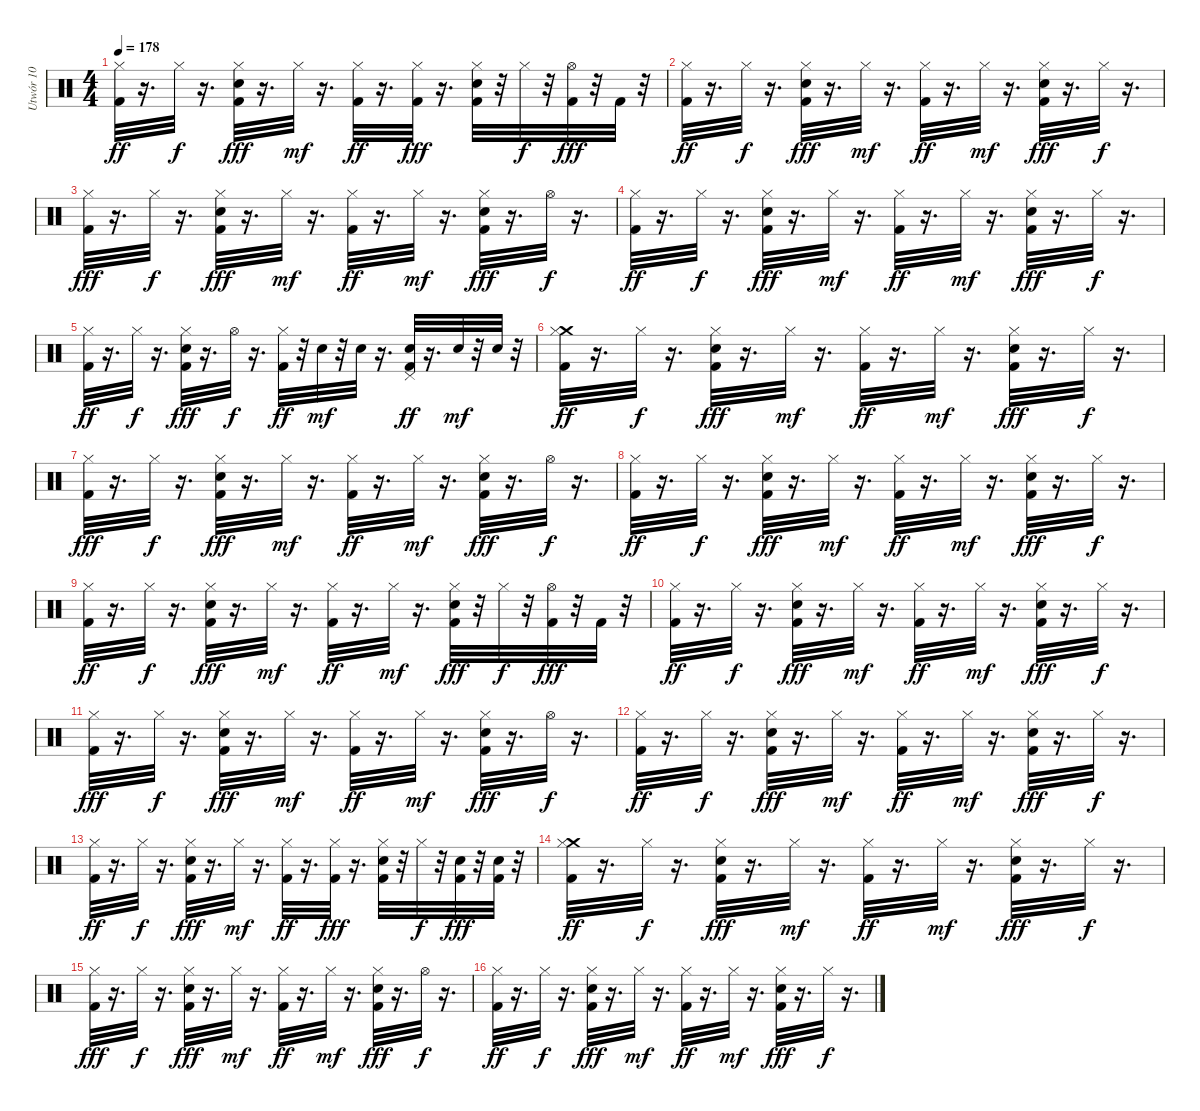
\track ("Utwór 10" "Utwór 10") {instrument percussion}
\staff {score}
\articulation defaults
\ts (4 4)
\tempo 178
\clef neutral
\ks c
("Kick (hit) 2" "Hi-Hat (closed)").32{dy ff} r.16{d} "Hi-Hat (closed)".32{dy f} r.16{d} ("Kick (hit) 2" "Electric Snare (hit)" "Hi-Hat (closed)").32{dy fff} r.16{d} "Hi-Hat (closed)".32{dy mf} r.16{d} ("Kick (hit) 2" "Hi-Hat (closed)").32{dy ff} r.16{d} ("Hi-Hat (closed)" "Kick (hit) 2").32{dy fff} r.16{d} ("Kick (hit) 2" "Electric Snare (hit)" "Hi-Hat (closed)").32 r.32 "Hi-Hat (closed)".32{dy f} r.32 ("Hi-Hat (open)" "Kick (hit) 2").32{dy fff} r.32 "Kick (hit) 2".32 r.32 |
("Kick (hit) 2" "Hi-Hat (closed)").32{dy ff} r.16{d} "Hi-Hat (closed)".32{dy f} r.16{d} ("Kick (hit) 2" "Electric Snare (hit)" "Hi-Hat (closed)").32{dy fff} r.16{d} "Hi-Hat (closed)".32{dy mf} r.16{d} ("Kick (hit) 2" "Hi-Hat (closed)").32{dy ff} r.16{d} "Hi-Hat (closed)".32{dy mf} r.16{d} ("Kick (hit) 2" "Electric Snare (hit)" "Hi-Hat (closed)").32{dy fff} r.16{d} "Hi-Hat (closed)".32{dy f} r.16{d} |
("Kick (hit) 2" "Hi-Hat (closed)").32{dy fff} r.16{d} "Hi-Hat (closed)".32{dy f} r.16{d} ("Kick (hit) 2" "Electric Snare (hit)" "Hi-Hat (closed)").32{dy fff} r.16{d} "Hi-Hat (closed)".32{dy mf} r.16{d} ("Kick (hit) 2" "Hi-Hat (closed)").32{dy ff} r.16{d} "Hi-Hat (closed)".32{dy mf} r.16{d} ("Kick (hit) 2" "Electric Snare (hit)" "Hi-Hat (closed)").32{dy fff} r.16{d} "Hi-Hat (open)".32{dy f} r.16{d} |
("Kick (hit) 2" "Hi-Hat (closed)").32{dy ff} r.16{d} "Hi-Hat (closed)".32{dy f} r.16{d} ("Kick (hit) 2" "Electric Snare (hit)" "Hi-Hat (closed)").32{dy fff} r.16{d} "Hi-Hat (closed)".32{dy mf} r.16{d} ("Kick (hit) 2" "Hi-Hat (closed)").32{dy ff} r.16{d} "Hi-Hat (closed)".32{dy mf} r.16{d} ("Kick (hit) 2" "Electric Snare (hit)" "Hi-Hat (closed)").32{dy fff} r.16{d} "Hi-Hat (closed)".32{dy f} r.16{d} |
("Kick (hit) 2" "Hi-Hat (closed)").32{dy ff} r.16{d} "Hi-Hat (closed)".32{dy f} r.16{d} ("Kick (hit) 2" "Electric Snare (hit)" "Hi-Hat (closed)").32{dy fff} r.16{d} "Hi-Hat (open)".32{dy f} r.16{d} ("Kick (hit) 2" "Hi-Hat (closed)").32{dy ff} r.32 "Electric Snare (hit)".32{dy mf} r.32 "Electric Snare (hit)".32 r.16{d} ("Kick (hit) 2" "Electric Snare (hit)" "Pedal Hi-Hat (hit)").32{dy ff} r.16{d} "Electric Snare (hit)".32{dy mf} r.32 "Electric Snare (hit)".32 r.32 |
("Crash medium (hit)" "Kick (hit) 2" "Hi-Hat (closed)").32{dy ff} r.16{d} "Hi-Hat (closed)".32{dy f} r.16{d} ("Kick (hit) 2" "Electric Snare (hit)" "Hi-Hat (closed)").32{dy fff} r.16{d} "Hi-Hat (closed)".32{dy mf} r.16{d} ("Kick (hit) 2" "Hi-Hat (closed)").32{dy ff} r.16{d} "Hi-Hat (closed)".32{dy mf} r.16{d} ("Kick (hit) 2" "Electric Snare (hit)" "Hi-Hat (closed)").32{dy fff} r.16{d} "Hi-Hat (closed)".32{dy f} r.16{d} |
("Kick (hit) 2" "Hi-Hat (closed)").32{dy fff} r.16{d} "Hi-Hat (closed)".32{dy f} r.16{d} ("Kick (hit) 2" "Electric Snare (hit)" "Hi-Hat (closed)").32{dy fff} r.16{d} "Hi-Hat (closed)".32{dy mf} r.16{d} ("Kick (hit) 2" "Hi-Hat (closed)").32{dy ff} r.16{d} "Hi-Hat (closed)".32{dy mf} r.16{d} ("Kick (hit) 2" "Electric Snare (hit)" "Hi-Hat (closed)").32{dy fff} r.16{d} "Hi-Hat (open)".32{dy f} r.16{d} |
("Kick (hit) 2" "Hi-Hat (closed)").32{dy ff} r.16{d} "Hi-Hat (closed)".32{dy f} r.16{d} ("Kick (hit) 2" "Electric Snare (hit)" "Hi-Hat (closed)").32{dy fff} r.16{d} "Hi-Hat (closed)".32{dy mf} r.16{d} ("Kick (hit) 2" "Hi-Hat (closed)").32{dy ff} r.16{d} "Hi-Hat (closed)".32{dy mf} r.16{d} ("Kick (hit) 2" "Electric Snare (hit)" "Hi-Hat (closed)").32{dy fff} r.16{d} "Hi-Hat (closed)".32{dy f} r.16{d} |
("Kick (hit) 2" "Hi-Hat (closed)").32{dy ff} r.16{d} "Hi-Hat (closed)".32{dy f} r.16{d} ("Kick (hit) 2" "Electric Snare (hit)" "Hi-Hat (closed)").32{dy fff} r.16{d} "Hi-Hat (closed)".32{dy mf} r.16{d} ("Kick (hit) 2" "Hi-Hat (closed)").32{dy ff} r.16{d} "Hi-Hat (closed)".32{dy mf} r.16{d} ("Kick (hit) 2" "Electric Snare (hit)" "Hi-Hat (closed)").32{dy fff} r.32 "Hi-Hat (closed)".32{dy f} r.32 ("Hi-Hat (open)" "Kick (hit) 2").32{dy fff} r.32 "Kick (hit) 2".32 r.32 |
("Kick (hit) 2" "Hi-Hat (closed)").32{dy ff} r.16{d} "Hi-Hat (closed)".32{dy f} r.16{d} ("Kick (hit) 2" "Electric Snare (hit)" "Hi-Hat (closed)").32{dy fff} r.16{d} "Hi-Hat (closed)".32{dy mf} r.16{d} ("Kick (hit) 2" "Hi-Hat (closed)").32{dy ff} r.16{d} "Hi-Hat (closed)".32{dy mf} r.16{d} ("Kick (hit) 2" "Electric Snare (hit)" "Hi-Hat (closed)").32{dy fff} r.16{d} "Hi-Hat (closed)".32{dy f} r.16{d} |
("Kick (hit) 2" "Hi-Hat (closed)").32{dy fff} r.16{d} "Hi-Hat (closed)".32{dy f} r.16{d} ("Kick (hit) 2" "Electric Snare (hit)" "Hi-Hat (closed)").32{dy fff} r.16{d} "Hi-Hat (closed)".32{dy mf} r.16{d} ("Kick (hit) 2" "Hi-Hat (closed)").32{dy ff} r.16{d} "Hi-Hat (closed)".32{dy mf} r.16{d} ("Kick (hit) 2" "Electric Snare (hit)" "Hi-Hat (closed)").32{dy fff} r.16{d} "Hi-Hat (open)".32{dy f} r.16{d} |
("Kick (hit) 2" "Hi-Hat (closed)").32{dy ff} r.16{d} "Hi-Hat (closed)".32{dy f} r.16{d} ("Kick (hit) 2" "Electric Snare (hit)" "Hi-Hat (closed)").32{dy fff} r.16{d} "Hi-Hat (closed)".32{dy mf} r.16{d} ("Kick (hit) 2" "Hi-Hat (closed)").32{dy ff} r.16{d} "Hi-Hat (closed)".32{dy mf} r.16{d} ("Kick (hit) 2" "Electric Snare (hit)" "Hi-Hat (closed)").32{dy fff} r.16{d} "Hi-Hat (closed)".32{dy f} r.16{d} |
("Kick (hit) 2" "Hi-Hat (closed)").32{dy ff} r.16{d} "Hi-Hat (closed)".32{dy f} r.16{d} ("Kick (hit) 2" "Electric Snare (hit)" "Hi-Hat (closed)").32{dy fff} r.16{d} "Hi-Hat (closed)".32{dy mf} r.16{d} ("Kick (hit) 2" "Hi-Hat (closed)").32{dy ff} r.16{d} ("Hi-Hat (closed)" "Kick (hit) 2").32{dy fff} r.16{d} ("Kick (hit) 2" "Electric Snare (hit)" "Hi-Hat (closed)").32 r.32 "Hi-Hat (closed)".32{dy f} r.32 ("Electric Snare (hit)" "Kick (hit) 2").32{dy fff} r.32 ("Electric Snare (hit)" "Kick (hit) 2").32 r.32 |
("Crash medium (hit)" "Kick (hit) 2" "Hi-Hat (closed)").32{dy ff} r.16{d} "Hi-Hat (closed)".32{dy f} r.16{d} ("Kick (hit) 2" "Electric Snare (hit)" "Hi-Hat (closed)").32{dy fff} r.16{d} "Hi-Hat (closed)".32{dy mf} r.16{d} ("Kick (hit) 2" "Hi-Hat (closed)").32{dy ff} r.16{d} "Hi-Hat (closed)".32{dy mf} r.16{d} ("Kick (hit) 2" "Electric Snare (hit)" "Hi-Hat (closed)").32{dy fff} r.16{d} "Hi-Hat (closed)".32{dy f} r.16{d} |
("Kick (hit) 2" "Hi-Hat (closed)").32{dy fff} r.16{d} "Hi-Hat (closed)".32{dy f} r.16{d} ("Kick (hit) 2" "Electric Snare (hit)" "Hi-Hat (closed)").32{dy fff} r.16{d} "Hi-Hat (closed)".32{dy mf} r.16{d} ("Kick (hit) 2" "Hi-Hat (closed)").32{dy ff} r.16{d} "Hi-Hat (closed)".32{dy mf} r.16{d} ("Kick (hit) 2" "Electric Snare (hit)" "Hi-Hat (closed)").32{dy fff} r.16{d} "Hi-Hat (open)".32{dy f} r.16{d} |
("Kick (hit) 2" "Hi-Hat (closed)").32{dy ff} r.16{d} "Hi-Hat (closed)".32{dy f} r.16{d} ("Kick (hit) 2" "Electric Snare (hit)" "Hi-Hat (closed)").32{dy fff} r.16{d} "Hi-Hat (closed)".32{dy mf} r.16{d} ("Kick (hit) 2" "Hi-Hat (closed)").32{dy ff} r.16{d} "Hi-Hat (closed)".32{dy mf} r.16{d} ("Kick (hit) 2" "Electric Snare (hit)" "Hi-Hat (closed)").32{dy fff} r.16{d} "Hi-Hat (closed)".32{dy f} r.16{d}
